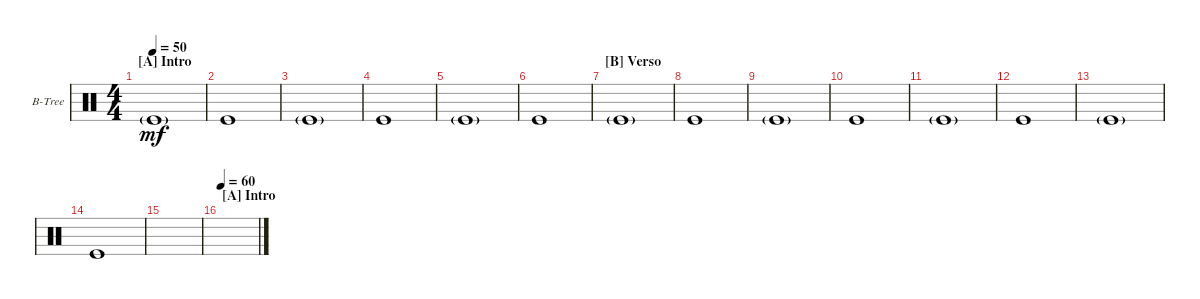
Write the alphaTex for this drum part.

\defaultSystemsLayout 4
\bracketExtendMode groupsimilarinstruments
\firstSystemTrackNameOrientation horizontal
\otherSystemsTrackNameOrientation horizontal
\track ("Bell Tree" "B-Tree") {multiBarRest instrument percussion}
\staff {score}
\articulation defaults
\ts (4 4)
\section ("A" "Intro")
\tempo 50
\clef neutral
\ks c "Kick (hit)"{g}.1{dy mf}
|
"Kick (hit)".1 |
"Kick (hit)"{g}.1 |
"Kick (hit)".1 |
"Kick (hit)"{g}.1 |
"Kick (hit)".1 |
\section ("B" "Verso")
"Kick (hit)"{g}.1 |
"Kick (hit)".1 |
"Kick (hit)"{g}.1 |
"Kick (hit)".1 |
"Kick (hit)"{g}.1 |
"Kick (hit)".1 |
"Kick (hit)"{g}.1 |
"Kick (hit)".1 |
|
\section ("A" "Intro")
\tempo 60
